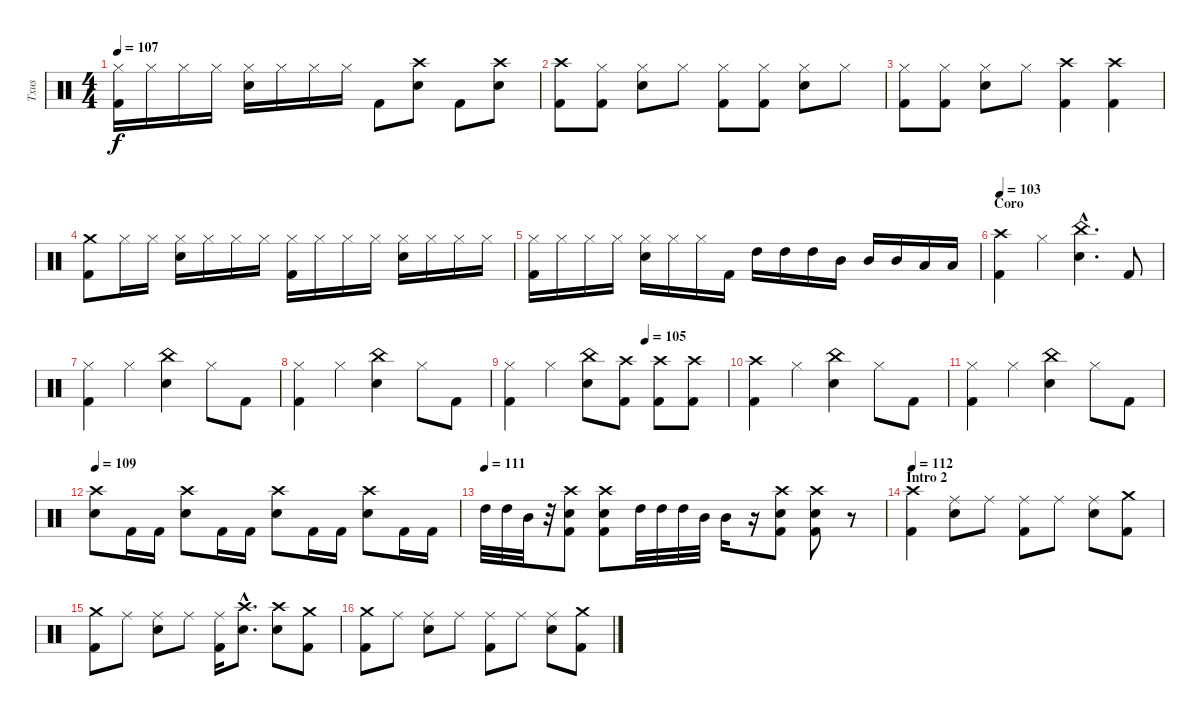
\track ("Txus" "Txus") {instrument percussion}
\staff {score}
\articulation defaults
\ts (4 4)
\tempo 107
\clef neutral
\ks c
("Kick (hit) 2" "Hi-Hat (closed)").16{dy f} "Hi-Hat (closed)".16 "Hi-Hat (closed)".16 "Hi-Hat (closed)".16 ("Electric Snare (hit)" "Hi-Hat (closed)").16 "Hi-Hat (closed)".16 "Hi-Hat (closed)".16 "Hi-Hat (closed)".16 "Kick (hit) 2".8 ("Electric Snare (hit)" "Crash high (hit)").8 "Kick (hit) 2".8 ("Electric Snare (hit)" "Crash high (hit)").8 |
("Kick (hit) 2" "Crash high (hit)").8 ("Kick (hit) 2" "Hi-Hat (closed)").8 ("Electric Snare (hit)" "Hi-Hat (closed)").8 "Hi-Hat (closed)".8 ("Kick (hit) 2" "Hi-Hat (closed)").8 ("Kick (hit) 2" "Hi-Hat (closed)").8 ("Electric Snare (hit)" "Hi-Hat (closed)").8 "Hi-Hat (closed)".8 |
("Kick (hit) 2" "Hi-Hat (closed)").8 ("Kick (hit) 2" "Hi-Hat (closed)").8 ("Electric Snare (hit)" "Hi-Hat (closed)").8 "Hi-Hat (closed)".8 ("Kick (hit) 2" "Crash high (hit)").4 ("Kick (hit) 2" "Crash high (hit)").4 |
("Kick (hit) 2" "Crash medium (hit)").8 "Hi-Hat (closed)".16 "Hi-Hat (closed)".16 ("Electric Snare (hit)" "Hi-Hat (closed)").16 "Hi-Hat (closed)".16 "Hi-Hat (closed)".16 "Hi-Hat (closed)".16 ("Kick (hit) 2" "Hi-Hat (closed)").16 "Hi-Hat (closed)".16 "Hi-Hat (closed)".16 "Hi-Hat (closed)".16 ("Electric Snare (hit)" "Hi-Hat (closed)").16 "Hi-Hat (closed)".16 "Hi-Hat (closed)".16 "Hi-Hat (closed)".16 |
("Kick (hit) 2" "Hi-Hat (closed)").16 "Hi-Hat (closed)".16 "Hi-Hat (closed)".16 "Hi-Hat (closed)".16 ("Electric Snare (hit)" "Hi-Hat (closed)").16 "Hi-Hat (closed)".16 "Hi-Hat (closed)".16 "Kick (hit) 2".16 "High Tom (hit)".16 "High Tom (hit)".16 "High Tom (hit)".16 "Mid Tom (hit)".16 "Mid Tom (hit)".16 "Mid Tom (hit)".16 "Low Tom (hit)".16 "Low Tom (hit)".16 |
\section ("" "Coro")
\tempo 103
("Crash high (hit)" "Kick (hit) 2").4 "Hi-Hat (closed)".4 ("Electric Snare (hit)"{hac} "China (hit)"{hac}).4{d} "Kick (hit) 2".8 |
("Kick (hit) 2" "Hi-Hat (closed)").4 "Hi-Hat (closed)".4 ("Electric Snare (hit)" "China (hit)").4 "Hi-Hat (closed)".8 "Kick (hit) 2".8 |
("Kick (hit) 2" "Hi-Hat (closed)").4 "Hi-Hat (closed)".4 ("Electric Snare (hit)" "China (hit)").4 "Hi-Hat (closed)".8 "Kick (hit) 2".8 |
\tempo (105 0.625)
("Kick (hit) 2" "Hi-Hat (closed)").4 "Hi-Hat (closed)".4 ("Electric Snare (hit)" "China (hit)").8 ("Kick (hit) 2" "Crash high (hit)").8 ("Kick (hit) 2" "Crash high (hit)").8 ("Kick (hit) 2" "Crash high (hit)").8 |
("Kick (hit) 2" "Crash high (hit)").4 "Hi-Hat (closed)".4 ("Electric Snare (hit)" "China (hit)").4 "Hi-Hat (closed)".8 "Kick (hit) 2".8 |
("Kick (hit) 2" "Hi-Hat (closed)").4 "Hi-Hat (closed)".4 ("Electric Snare (hit)" "China (hit)").4 "Hi-Hat (closed)".8 "Kick (hit) 2".8 |
\tempo 109
("Electric Snare (hit)" "Crash high (hit)").8 "Kick (hit) 2".16 "Kick (hit) 2".16 ("Electric Snare (hit)" "Crash high (hit)").8 "Kick (hit) 2".16 "Kick (hit) 2".16 ("Electric Snare (hit)" "Crash high (hit)").8 "Kick (hit) 2".16 "Kick (hit) 2".16 ("Electric Snare (hit)" "Crash high (hit)").8 "Kick (hit) 2".16 "Kick (hit) 2".16 |
\tempo (111)
"High Tom (hit)".32{volume 7} "High Tom (hit)".32 "Mid Tom (hit)".32 r.32 ("Electric Snare (hit)" "Crash high (hit)" "Kick (hit) 2").8{volume 16} ("Electric Snare (hit)" "Crash high (hit)" "Kick (hit) 2").8 "High Tom (hit)".32{volume 7} "High Tom (hit)".32 "High Tom (hit)".32 "Mid Tom (hit)".32 "Mid Tom (hit)".16 r.16 ("Electric Snare (hit)" "Crash high (hit)" "Kick (hit) 2").8{volume 16} ("Electric Snare (hit)" "Crash high (hit)" "Kick (hit) 2").8 r.8 |
\section ("" "Intro 2")
\tempo 112
("Kick (hit) 2" "Crash high (hit)").4 ("Electric Snare (hit)" "Ride (middle)").8 "Ride (middle)".8 ("Kick (hit) 2" "Ride (middle)").8 "Ride (middle)".8 ("Electric Snare (hit)" "Ride (middle)").8 ("Kick (hit) 2" "Crash medium (hit)").8 |
("Kick (hit) 2" "Crash medium (hit)").8 "Ride (middle)".8 ("Electric Snare (hit)" "Ride (middle)").8 "Ride (middle)".8 ("Kick (hit) 2" "Ride (middle)").16 ("Electric Snare (hit)"{hac} "Crash high (hit)"{hac}).8{d} ("Electric Snare (hit)" "Crash high (hit)").8 ("Kick (hit) 2" "Crash medium (hit)").8 |
("Kick (hit) 2" "Crash medium (hit)").8 "Ride (middle)".8 ("Electric Snare (hit)" "Ride (middle)").8 "Ride (middle)".8 ("Kick (hit) 2" "Ride (middle)").8 "Ride (middle)".8 ("Electric Snare (hit)" "Ride (middle)").8 ("Kick (hit) 2" "Crash medium (hit)").8
